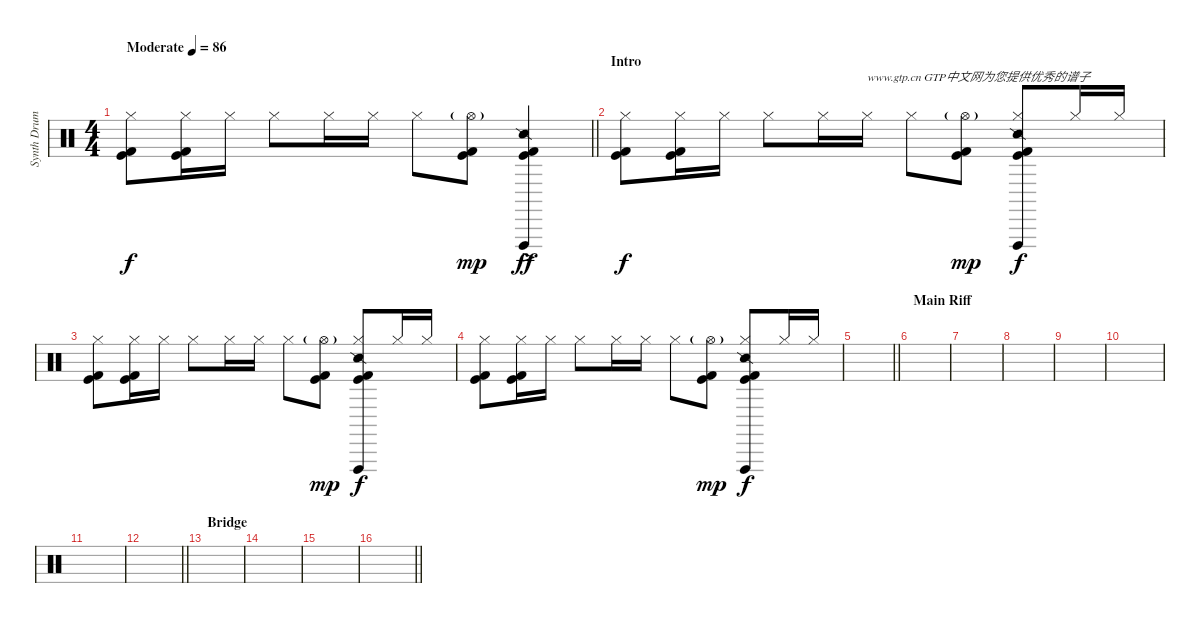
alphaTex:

\track ("Synth Drums" "Synth Drum") {instrument percussion}
\staff {score}
\articulation defaults
\ts (4 4)
\tempo (86 "Moderate")
\clef neutral
\barLineRight lightlight
\ks c
("Hi-Hat (closed)" "Kick (hit) 2" "Kick (hit)").8{dy f} ("Hi-Hat (closed)" "Kick (hit) 2" "Kick (hit)").16 "Hi-Hat (closed)".16 "Hi-Hat (closed)".8 "Hi-Hat (closed)".16 "Hi-Hat (closed)".16 "Hi-Hat (closed)".8 ("Hi-Hat (open)"{g} "Kick (hit) 2" "Kick (hit)").8{dy mp} ("Snare (side stick) 2"{ac} "Vibraslap (hit)"{ac} "Kick (hit) 2" "Kick (hit)").4{dy ff} |
\section ("" "Intro")
("Hi-Hat (closed)" "Kick (hit) 2" "Kick (hit)").8{dy f} ("Hi-Hat (closed)" "Kick (hit) 2" "Kick (hit)").16 "Hi-Hat (closed)".16 "Hi-Hat (closed)".8 "Hi-Hat (closed)".16 "Hi-Hat (closed)".16{txt "www.gtp.cn GTP中文网为您提供优秀的谱子"} "Hi-Hat (closed)".8 ("Hi-Hat (open)"{g} "Kick (hit) 2" "Kick (hit)").8{dy mp} ("Hi-Hat (closed)" "Snare (side stick) 2" "Vibraslap (hit)" "Kick (hit) 2" "Kick (hit)").8{dy f} "Hi-Hat (closed)".16 "Hi-Hat (closed)".16 |
("Hi-Hat (closed)" "Kick (hit) 2" "Kick (hit)").8 ("Hi-Hat (closed)" "Kick (hit) 2" "Kick (hit)").16 "Hi-Hat (closed)".16 "Hi-Hat (closed)".8 "Hi-Hat (closed)".16 "Hi-Hat (closed)".16 "Hi-Hat (closed)".8 ("Hi-Hat (open)"{g} "Kick (hit) 2" "Kick (hit)").8{dy mp} ("Hi-Hat (closed)" "Snare (side stick) 2" "Vibraslap (hit)" "Kick (hit) 2" "Kick (hit)").8{dy f} "Hi-Hat (closed)".16 "Hi-Hat (closed)".16 |
("Hi-Hat (closed)" "Kick (hit) 2" "Kick (hit)").8 ("Hi-Hat (closed)" "Kick (hit) 2" "Kick (hit)").16 "Hi-Hat (closed)".16 "Hi-Hat (closed)".8 "Hi-Hat (closed)".16 "Hi-Hat (closed)".16 "Hi-Hat (closed)".8 ("Hi-Hat (open)"{g} "Kick (hit) 2" "Kick (hit)").8{dy mp} ("Hi-Hat (closed)" "Snare (side stick) 2" "Vibraslap (hit)" "Kick (hit) 2" "Kick (hit)").8{dy f} "Hi-Hat (closed)".16 "Hi-Hat (closed)".16 |
\barLineRight lightlight
|
\section ("" "Main Riff")
|
|
|
|
|
|
\barLineRight lightlight
|
\section ("" "Bridge")
|
|
|
\barLineRight lightlight
